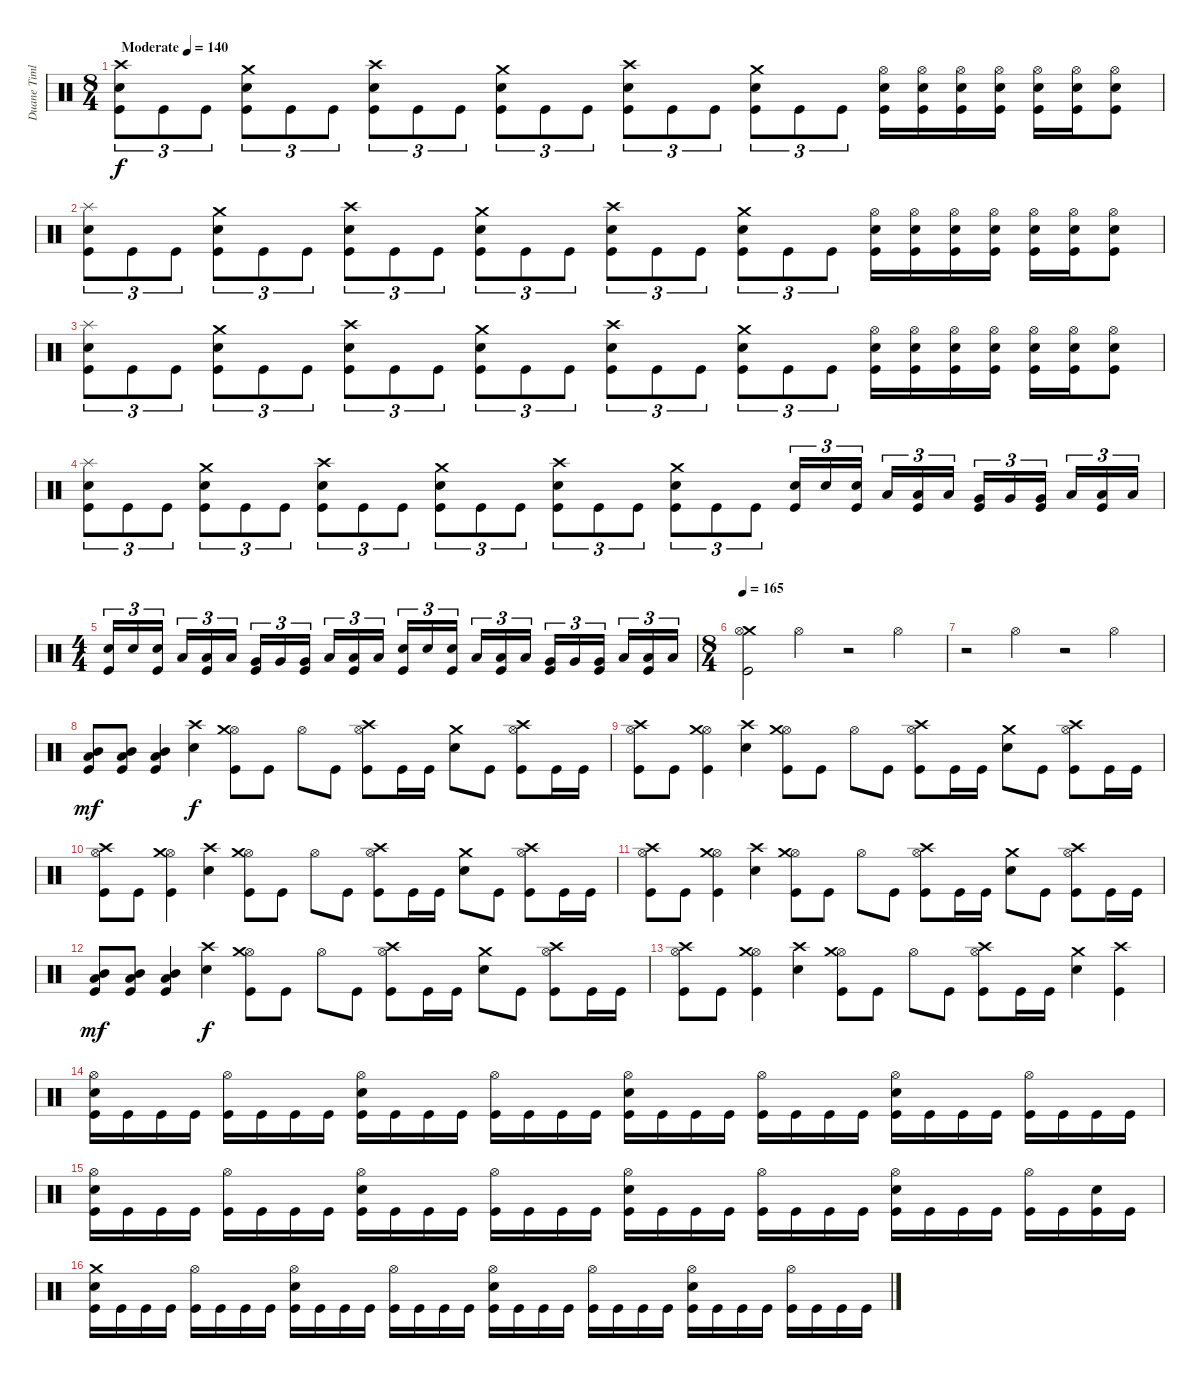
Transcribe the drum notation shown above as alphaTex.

\track ("Duane Timlin" "Duane Timl") {instrument percussion}
\staff {score}
\articulation defaults
\ts (8 4)
\section ("" "")
\tempo (140 "Moderate")
\clef neutral
\ks c
("Kick (hit)" "Snare (hit) 2" "Crash high (hit)").8{tu (3 2) dy f} "Kick (hit)".8{tu (3 2)} "Kick (hit)".8{tu (3 2)} ("Kick (hit)" "Snare (hit) 2" "Crash medium (hit)").8{tu (3 2)} "Kick (hit)".8{tu (3 2)} "Kick (hit)".8{tu (3 2)} ("Kick (hit)" "Snare (hit) 2" "Crash high (hit)").8{tu (3 2)} "Kick (hit)".8{tu (3 2)} "Kick (hit)".8{tu (3 2)} ("Kick (hit)" "Snare (hit) 2" "Crash medium (hit)").8{tu (3 2)} "Kick (hit)".8{tu (3 2)} "Kick (hit)".8{tu (3 2)} ("Kick (hit)" "Snare (hit) 2" "Crash high (hit)").8{tu (3 2)} "Kick (hit)".8{tu (3 2)} "Kick (hit)".8{tu (3 2)} ("Kick (hit)" "Snare (hit) 2" "Crash medium (hit)").8{tu (3 2)} "Kick (hit)".8{tu (3 2)} "Kick (hit)".8{tu (3 2)} ("Snare (hit) 2" "Kick (hit)" "Hi-Hat (open)").16 ("Snare (hit) 2" "Kick (hit)" "Hi-Hat (open)").16 ("Snare (hit) 2" "Kick (hit)" "Hi-Hat (open)").16 ("Snare (hit) 2" "Kick (hit)" "Hi-Hat (open)").16 ("Snare (hit) 2" "Kick (hit)" "Hi-Hat (open)").16 ("Snare (hit) 2" "Kick (hit)" "Hi-Hat (open)").16 ("Snare (hit) 2" "Kick (hit)" "Hi-Hat (open)").8 |
("Kick (hit)" "Splash (hit)" "Snare (hit) 2").8{tu (3 2)} "Kick (hit)".8{tu (3 2)} "Kick (hit)".8{tu (3 2)} ("Kick (hit)" "Crash medium (hit)" "Snare (hit) 2").8{tu (3 2)} "Kick (hit)".8{tu (3 2)} "Kick (hit)".8{tu (3 2)} ("Kick (hit)" "Crash high (hit)" "Snare (hit) 2").8{tu (3 2)} "Kick (hit)".8{tu (3 2)} "Kick (hit)".8{tu (3 2)} ("Kick (hit)" "Crash medium (hit)" "Snare (hit) 2").8{tu (3 2)} "Kick (hit)".8{tu (3 2)} "Kick (hit)".8{tu (3 2)} ("Kick (hit)" "Crash high (hit)" "Snare (hit) 2").8{tu (3 2)} "Kick (hit)".8{tu (3 2)} "Kick (hit)".8{tu (3 2)} ("Kick (hit)" "Crash medium (hit)" "Snare (hit) 2").8{tu (3 2)} "Kick (hit)".8{tu (3 2)} "Kick (hit)".8{tu (3 2)} ("Snare (hit) 2" "Kick (hit)" "Hi-Hat (open)").16 ("Snare (hit) 2" "Kick (hit)" "Hi-Hat (open)").16 ("Snare (hit) 2" "Kick (hit)" "Hi-Hat (open)").16 ("Snare (hit) 2" "Kick (hit)" "Hi-Hat (open)").16 ("Snare (hit) 2" "Kick (hit)" "Hi-Hat (open)").16 ("Snare (hit) 2" "Kick (hit)" "Hi-Hat (open)").16 ("Snare (hit) 2" "Kick (hit)" "Hi-Hat (open)").8 |
("Kick (hit)" "Splash (hit)" "Snare (hit) 2").8{tu (3 2)} "Kick (hit)".8{tu (3 2)} "Kick (hit)".8{tu (3 2)} ("Kick (hit)" "Crash medium (hit)" "Snare (hit) 2").8{tu (3 2)} "Kick (hit)".8{tu (3 2)} "Kick (hit)".8{tu (3 2)} ("Kick (hit)" "Crash high (hit)" "Snare (hit) 2").8{tu (3 2)} "Kick (hit)".8{tu (3 2)} "Kick (hit)".8{tu (3 2)} ("Kick (hit)" "Crash medium (hit)" "Snare (hit) 2").8{tu (3 2)} "Kick (hit)".8{tu (3 2)} "Kick (hit)".8{tu (3 2)} ("Kick (hit)" "Crash high (hit)" "Snare (hit) 2").8{tu (3 2)} "Kick (hit)".8{tu (3 2)} "Kick (hit)".8{tu (3 2)} ("Kick (hit)" "Crash medium (hit)" "Snare (hit) 2").8{tu (3 2)} "Kick (hit)".8{tu (3 2)} "Kick (hit)".8{tu (3 2)} ("Snare (hit) 2" "Kick (hit)" "Hi-Hat (open)").16 ("Snare (hit) 2" "Kick (hit)" "Hi-Hat (open)").16 ("Snare (hit) 2" "Kick (hit)" "Hi-Hat (open)").16 ("Snare (hit) 2" "Kick (hit)" "Hi-Hat (open)").16 ("Snare (hit) 2" "Kick (hit)" "Hi-Hat (open)").16 ("Snare (hit) 2" "Kick (hit)" "Hi-Hat (open)").16 ("Snare (hit) 2" "Kick (hit)" "Hi-Hat (open)").8 |
("Kick (hit)" "Splash (hit)" "Snare (hit) 2").8{tu (3 2)} "Kick (hit)".8{tu (3 2)} "Kick (hit)".8{tu (3 2)} ("Kick (hit)" "Crash medium (hit)" "Snare (hit) 2").8{tu (3 2)} "Kick (hit)".8{tu (3 2)} "Kick (hit)".8{tu (3 2)} ("Kick (hit)" "Crash high (hit)" "Snare (hit) 2").8{tu (3 2)} "Kick (hit)".8{tu (3 2)} "Kick (hit)".8{tu (3 2)} ("Kick (hit)" "Crash medium (hit)" "Snare (hit) 2").8{tu (3 2)} "Kick (hit)".8{tu (3 2)} "Kick (hit)".8{tu (3 2)} ("Kick (hit)" "Crash high (hit)" "Snare (hit) 2").8{tu (3 2)} "Kick (hit)".8{tu (3 2)} "Kick (hit)".8{tu (3 2)} ("Kick (hit)" "Crash medium (hit)" "Snare (hit) 2").8{tu (3 2)} "Kick (hit)".8{tu (3 2)} "Kick (hit)".8{tu (3 2)} ("Snare (hit) 2" "Kick (hit)").16{tu (3 2)} "Snare (hit) 2".16{tu (3 2)} ("Snare (hit) 2" "Kick (hit)").16{tu (3 2)} "Low Tom (hit)".16{tu (3 2)} ("Low Tom (hit)" "Kick (hit)").16{tu (3 2)} "Low Tom (hit)".16{tu (3 2)} ("Very Low Tom (hit)" "Kick (hit)").16{tu (3 2)} "Very Low Tom (hit)".16{tu (3 2)} ("Very Low Tom (hit)" "Kick (hit)").16{tu (3 2)} "Low Floor Tom (hit)".16{tu (3 2)} ("Low Floor Tom (hit)" "Kick (hit)").16{tu (3 2)} "Low Floor Tom (hit)".16{tu (3 2)} |
\ts (4 4)
("Snare (hit) 2" "Kick (hit)").16{tu (3 2)} "Snare (hit) 2".16{tu (3 2)} ("Snare (hit) 2" "Kick (hit)").16{tu (3 2)} "Low Tom (hit)".16{tu (3 2)} ("Low Tom (hit)" "Kick (hit)").16{tu (3 2)} "Low Tom (hit)".16{tu (3 2)} ("Very Low Tom (hit)" "Kick (hit)").16{tu (3 2)} "Very Low Tom (hit)".16{tu (3 2)} ("Very Low Tom (hit)" "Kick (hit)").16{tu (3 2)} "Low Floor Tom (hit)".16{tu (3 2)} ("Low Floor Tom (hit)" "Kick (hit)").16{tu (3 2)} "Low Floor Tom (hit)".16{tu (3 2)} ("Snare (hit) 2" "Kick (hit)").16{tu (3 2)} "Snare (hit) 2".16{tu (3 2)} ("Snare (hit) 2" "Kick (hit)").16{tu (3 2)} "Low Tom (hit)".16{tu (3 2)} ("Low Tom (hit)" "Kick (hit)").16{tu (3 2)} "Low Tom (hit)".16{tu (3 2)} ("Very Low Tom (hit)" "Kick (hit)").16{tu (3 2)} "Very Low Tom (hit)".16{tu (3 2)} ("Very Low Tom (hit)" "Kick (hit)").16{tu (3 2)} "Low Floor Tom (hit)".16{tu (3 2)} ("Low Floor Tom (hit)" "Kick (hit)").16{tu (3 2)} "Low Floor Tom (hit)".16{tu (3 2)} |
\ts (8 4)
\section ("" "")
\tempo 165
("Kick (hit)" "Crash medium (hit)" "Hi-Hat (open)").2 "Hi-Hat (open)".2 r.2 "Hi-Hat (open)".2 |
r.2 "Hi-Hat (open)".2 r.2 "Hi-Hat (open)".2 |
("Low Tom (hit)" "Kick (hit)" "Mid Tom (hit)").8{dy mf} ("Low Tom (hit)" "Kick (hit)" "Mid Tom (hit)").8 ("Low Tom (hit)" "Kick (hit)" "Mid Tom (hit)").4 ("Snare (hit) 2" "Crash high (hit)").4{dy f} ("Kick (hit)" "Hi-Hat (open)" "Crash medium (hit)").8 "Kick (hit)".8 "Hi-Hat (open)".8 "Kick (hit)".8 ("Kick (hit)" "Crash high (hit)" "Hi-Hat (open)").8 "Kick (hit)".16 "Kick (hit)".16 ("Snare (hit) 2" "Crash medium (hit)").8 "Kick (hit)".8 ("Kick (hit)" "Crash high (hit)" "Hi-Hat (open)").8 "Kick (hit)".16 "Kick (hit)".16 |
("Kick (hit)" "Hi-Hat (open)" "Crash high (hit)").8 "Kick (hit)".8 ("Kick (hit)" "Hi-Hat (open)" "Crash medium (hit)").4 ("Snare (hit) 2" "Crash high (hit)").4 ("Kick (hit)" "Hi-Hat (open)" "Crash medium (hit)").8 "Kick (hit)".8 "Hi-Hat (open)".8 "Kick (hit)".8 ("Kick (hit)" "Crash high (hit)" "Hi-Hat (open)").8 "Kick (hit)".16 "Kick (hit)".16 ("Snare (hit) 2" "Crash medium (hit)").8 "Kick (hit)".8 ("Kick (hit)" "Crash high (hit)" "Hi-Hat (open)").8 "Kick (hit)".16 "Kick (hit)".16 |
("Kick (hit)" "Hi-Hat (open)" "Crash high (hit)").8 "Kick (hit)".8 ("Kick (hit)" "Hi-Hat (open)" "Crash medium (hit)").4 ("Snare (hit) 2" "Crash high (hit)").4 ("Kick (hit)" "Hi-Hat (open)" "Crash medium (hit)").8 "Kick (hit)".8 "Hi-Hat (open)".8 "Kick (hit)".8 ("Kick (hit)" "Crash high (hit)" "Hi-Hat (open)").8 "Kick (hit)".16 "Kick (hit)".16 ("Snare (hit) 2" "Crash medium (hit)").8 "Kick (hit)".8 ("Kick (hit)" "Crash high (hit)" "Hi-Hat (open)").8 "Kick (hit)".16 "Kick (hit)".16 |
("Kick (hit)" "Hi-Hat (open)" "Crash high (hit)").8 "Kick (hit)".8 ("Kick (hit)" "Hi-Hat (open)" "Crash medium (hit)").4 ("Snare (hit) 2" "Crash high (hit)").4 ("Kick (hit)" "Hi-Hat (open)" "Crash medium (hit)").8 "Kick (hit)".8 "Hi-Hat (open)".8 "Kick (hit)".8 ("Kick (hit)" "Crash high (hit)" "Hi-Hat (open)").8 "Kick (hit)".16 "Kick (hit)".16 ("Snare (hit) 2" "Crash medium (hit)").8 "Kick (hit)".8 ("Kick (hit)" "Crash high (hit)" "Hi-Hat (open)").8 "Kick (hit)".16 "Kick (hit)".16 |
("Low Tom (hit)" "Kick (hit)" "Mid Tom (hit)").8{dy mf} ("Low Tom (hit)" "Kick (hit)" "Mid Tom (hit)").8 ("Low Tom (hit)" "Kick (hit)" "Mid Tom (hit)").4 ("Snare (hit) 2" "Crash high (hit)").4{dy f} ("Kick (hit)" "Hi-Hat (open)" "Crash medium (hit)").8 "Kick (hit)".8 "Hi-Hat (open)".8 "Kick (hit)".8 ("Kick (hit)" "Crash high (hit)" "Hi-Hat (open)").8 "Kick (hit)".16 "Kick (hit)".16 ("Snare (hit) 2" "Crash medium (hit)").8 "Kick (hit)".8 ("Kick (hit)" "Crash high (hit)" "Hi-Hat (open)").8 "Kick (hit)".16 "Kick (hit)".16 |
("Kick (hit)" "Hi-Hat (open)" "Crash high (hit)").8 "Kick (hit)".8 ("Kick (hit)" "Hi-Hat (open)" "Crash medium (hit)").4 ("Snare (hit) 2" "Crash high (hit)").4 ("Kick (hit)" "Hi-Hat (open)" "Crash medium (hit)").8 "Kick (hit)".8 "Hi-Hat (open)".8 "Kick (hit)".8 ("Kick (hit)" "Crash high (hit)" "Hi-Hat (open)").8 "Kick (hit)".16 "Kick (hit)".16 ("Snare (hit) 2" "Crash medium (hit)").4 ("Kick (hit)" "Crash high (hit)").4 |
\section ("" "")
("Kick (hit)" "Snare (hit) 2" "Hi-Hat (open)").16 "Kick (hit)".16 "Kick (hit)".16 "Kick (hit)".16 ("Kick (hit)" "Hi-Hat (open)").16 "Kick (hit)".16 "Kick (hit)".16 "Kick (hit)".16 ("Kick (hit)" "Snare (hit) 2" "Hi-Hat (open)").16 "Kick (hit)".16 "Kick (hit)".16 "Kick (hit)".16 ("Kick (hit)" "Hi-Hat (open)").16 "Kick (hit)".16 "Kick (hit)".16 "Kick (hit)".16 ("Kick (hit)" "Snare (hit) 2" "Hi-Hat (open)").16 "Kick (hit)".16 "Kick (hit)".16 "Kick (hit)".16 ("Kick (hit)" "Hi-Hat (open)").16 "Kick (hit)".16 "Kick (hit)".16 "Kick (hit)".16 ("Kick (hit)" "Snare (hit) 2" "Hi-Hat (open)").16 "Kick (hit)".16 "Kick (hit)".16 "Kick (hit)".16 ("Kick (hit)" "Hi-Hat (open)").16 "Kick (hit)".16 "Kick (hit)".16 "Kick (hit)".16 |
("Kick (hit)" "Snare (hit) 2" "Hi-Hat (open)").16 "Kick (hit)".16 "Kick (hit)".16 "Kick (hit)".16 ("Kick (hit)" "Hi-Hat (open)").16 "Kick (hit)".16 "Kick (hit)".16 "Kick (hit)".16 ("Kick (hit)" "Snare (hit) 2" "Hi-Hat (open)").16 "Kick (hit)".16 "Kick (hit)".16 "Kick (hit)".16 ("Kick (hit)" "Hi-Hat (open)").16 "Kick (hit)".16 "Kick (hit)".16 "Kick (hit)".16 ("Kick (hit)" "Snare (hit) 2" "Hi-Hat (open)").16 "Kick (hit)".16 "Kick (hit)".16 "Kick (hit)".16 ("Kick (hit)" "Hi-Hat (open)").16 "Kick (hit)".16 "Kick (hit)".16 "Kick (hit)".16 ("Kick (hit)" "Snare (hit) 2" "Hi-Hat (open)").16 "Kick (hit)".16 "Kick (hit)".16 "Kick (hit)".16 ("Kick (hit)" "Hi-Hat (open)").16 "Kick (hit)".16 ("Kick (hit)" "Snare (hit) 2").16 "Kick (hit)".16 |
("Kick (hit)" "Snare (hit) 2" "Crash medium (hit)").16 "Kick (hit)".16 "Kick (hit)".16 "Kick (hit)".16 ("Kick (hit)" "Hi-Hat (open)").16 "Kick (hit)".16 "Kick (hit)".16 "Kick (hit)".16 ("Kick (hit)" "Snare (hit) 2" "Hi-Hat (open)").16 "Kick (hit)".16 "Kick (hit)".16 "Kick (hit)".16 ("Kick (hit)" "Hi-Hat (open)").16 "Kick (hit)".16 "Kick (hit)".16 "Kick (hit)".16 ("Kick (hit)" "Snare (hit) 2" "Hi-Hat (open)").16 "Kick (hit)".16 "Kick (hit)".16 "Kick (hit)".16 ("Kick (hit)" "Hi-Hat (open)").16 "Kick (hit)".16 "Kick (hit)".16 "Kick (hit)".16 ("Kick (hit)" "Snare (hit) 2" "Hi-Hat (open)").16 "Kick (hit)".16 "Kick (hit)".16 "Kick (hit)".16 ("Kick (hit)" "Hi-Hat (open)").16 "Kick (hit)".16 "Kick (hit)".16 "Kick (hit)".16
